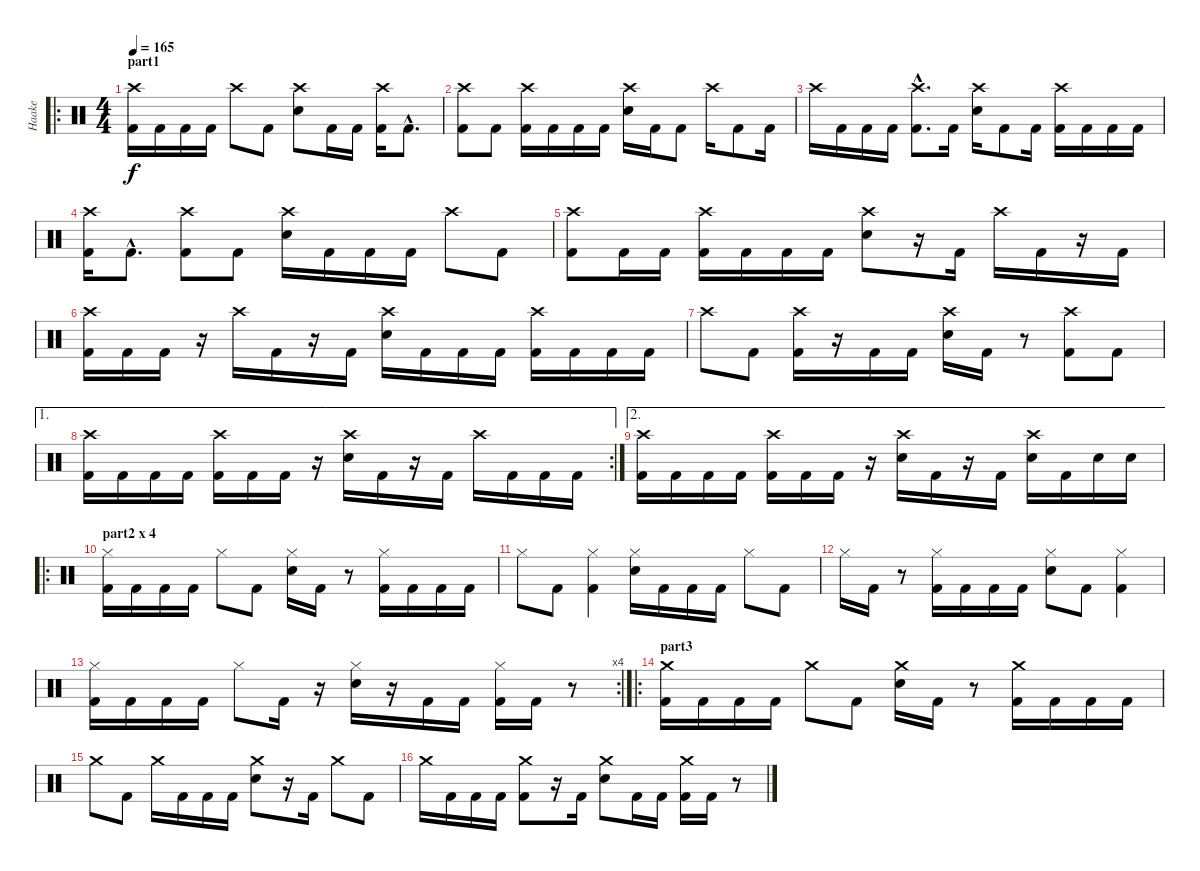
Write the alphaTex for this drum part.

\track ("Haake" "Haake") {instrument percussion}
\staff {score}
\articulation defaults
\ro
\ts (4 4)
\section ("" "part1")
\tempo 165
\clef neutral
\ks c
("Crash high (hit)" "Kick (hit) 2").16{dy f} "Kick (hit) 2".16 "Kick (hit) 2".16 "Kick (hit) 2".16 "Crash high (hit)".8 "Kick (hit) 2".8 ("Crash high (hit)" "Electric Snare (hit)").8 "Kick (hit) 2".16 "Kick (hit) 2".16 ("Crash high (hit)" "Kick (hit) 2").16 "Kick (hit) 2"{hac}.8{d} |
("Crash high (hit)" "Kick (hit) 2").8 "Kick (hit) 2".8 ("Crash high (hit)" "Kick (hit) 2").16 "Kick (hit) 2".16 "Kick (hit) 2".16 "Kick (hit) 2".16 ("Crash high (hit)" "Electric Snare (hit)").16 "Kick (hit) 2".16 "Kick (hit) 2".8 "Crash high (hit)".16 "Kick (hit) 2".8 "Kick (hit) 2".16 |
"Crash high (hit)".16 "Kick (hit) 2".16 "Kick (hit) 2".16 "Kick (hit) 2".16 ("Crash high (hit)"{hac} "Kick (hit) 2"{hac}).8{d} "Kick (hit) 2".16 ("Crash high (hit)" "Electric Snare (hit)").16 "Kick (hit) 2".8 "Kick (hit) 2".16 ("Crash high (hit)" "Kick (hit) 2").16 "Kick (hit) 2".16 "Kick (hit) 2".16 "Kick (hit) 2".16 |
("Crash high (hit)" "Kick (hit) 2").16 "Kick (hit) 2"{hac}.8{d} ("Crash high (hit)" "Kick (hit) 2").8 "Kick (hit) 2".8 ("Crash high (hit)" "Electric Snare (hit)").16 "Kick (hit) 2".16 "Kick (hit) 2".16 "Kick (hit) 2".16 "Crash high (hit)".8 "Kick (hit) 2".8 |
("Crash high (hit)" "Kick (hit) 2").8 "Kick (hit) 2".16 "Kick (hit) 2".16 ("Crash high (hit)" "Kick (hit) 2").16 "Kick (hit) 2".16 "Kick (hit) 2".16 "Kick (hit) 2".16 ("Crash high (hit)" "Electric Snare (hit)").8 r.16 "Kick (hit) 2".16 "Crash high (hit)".16 "Kick (hit) 2".16 r.16 "Kick (hit) 2".16 |
("Crash high (hit)" "Kick (hit) 2").16 "Kick (hit) 2".16 "Kick (hit) 2".16 r.16 "Crash high (hit)".16 "Kick (hit) 2".16 r.16 "Kick (hit) 2".16 ("Crash high (hit)" "Electric Snare (hit)").16 "Kick (hit) 2".16 "Kick (hit) 2".16 "Kick (hit) 2".16 ("Crash high (hit)" "Kick (hit) 2").16 "Kick (hit) 2".16 "Kick (hit) 2".16 "Kick (hit) 2".16 |
"Crash high (hit)".8 "Kick (hit) 2".8 ("Crash high (hit)" "Kick (hit) 2").16 r.16 "Kick (hit) 2".16 "Kick (hit) 2".16 ("Crash high (hit)" "Electric Snare (hit)").16 "Kick (hit) 2".16 r.8 ("Crash high (hit)" "Kick (hit) 2").8 "Kick (hit) 2".8 |
\ae 1
\rc 2
("Crash high (hit)" "Kick (hit) 2").16 "Kick (hit) 2".16 "Kick (hit) 2".16 "Kick (hit) 2".16 ("Crash high (hit)" "Kick (hit) 2").16 "Kick (hit) 2".16 "Kick (hit) 2".16 r.16 ("Crash high (hit)" "Electric Snare (hit)").16 "Kick (hit) 2".16 r.16 "Kick (hit) 2".16 "Crash high (hit)".16 "Kick (hit) 2".16 "Kick (hit) 2".16 "Kick (hit) 2".16 |
\ae 2
("Crash high (hit)" "Kick (hit) 2").16 "Kick (hit) 2".16 "Kick (hit) 2".16 "Kick (hit) 2".16 ("Crash high (hit)" "Kick (hit) 2").16 "Kick (hit) 2".16 "Kick (hit) 2".16 r.16 ("Crash high (hit)" "Electric Snare (hit)").16 "Kick (hit) 2".16 r.16 "Kick (hit) 2".16 ("Crash high (hit)" "Electric Snare (hit)").16 "Kick (hit) 2".16 "Electric Snare (hit)".16 "Electric Snare (hit)".16 |
\ro
\section ("" "part2 x 4")
("Hi-Hat (closed)" "Kick (hit) 2").16 "Kick (hit) 2".16 "Kick (hit) 2".16 "Kick (hit) 2".16 "Hi-Hat (closed)".8 "Kick (hit) 2".8 ("Hi-Hat (closed)" "Electric Snare (hit)").16 "Kick (hit) 2".16 r.8 ("Hi-Hat (closed)" "Kick (hit) 2").16 "Kick (hit) 2".16 "Kick (hit) 2".16 "Kick (hit) 2".16 |
"Hi-Hat (closed)".8 "Kick (hit) 2".8 ("Hi-Hat (closed)" "Kick (hit) 2").4 ("Hi-Hat (closed)" "Electric Snare (hit)").16 "Kick (hit) 2".16 "Kick (hit) 2".16 "Kick (hit) 2".16 "Hi-Hat (closed)".8 "Kick (hit) 2".8 |
"Hi-Hat (closed)".16 "Kick (hit) 2".16 r.8 ("Hi-Hat (closed)" "Kick (hit) 2").16 "Kick (hit) 2".16 "Kick (hit) 2".16 "Kick (hit) 2".16 ("Hi-Hat (closed)" "Electric Snare (hit)").8 "Kick (hit) 2".8 ("Hi-Hat (closed)" "Kick (hit) 2").4 |
\rc 4
("Hi-Hat (closed)" "Kick (hit) 2").16 "Kick (hit) 2".16 "Kick (hit) 2".16 "Kick (hit) 2".16 "Hi-Hat (closed)".8 "Kick (hit) 2".16 r.16 ("Hi-Hat (closed)" "Electric Snare (hit)").16 r.16 "Kick (hit) 2".16 "Kick (hit) 2".16 ("Hi-Hat (closed)" "Kick (hit) 2").16 "Kick (hit) 2".16 r.8 |
\ro
\section ("" "part3")
("Crash medium (hit)" "Kick (hit) 2").16 "Kick (hit) 2".16 "Kick (hit) 2".16 "Kick (hit) 2".16 "Crash medium (hit)".8 "Kick (hit) 2".8 ("Crash medium (hit)" "Electric Snare (hit)").16 "Kick (hit) 2".16 r.8 ("Crash medium (hit)" "Kick (hit) 2").16 "Kick (hit) 2".16 "Kick (hit) 2".16 "Kick (hit) 2".16 |
"Crash medium (hit)".8 "Kick (hit) 2".8 "Crash medium (hit)".16 "Kick (hit) 2".16 "Kick (hit) 2".16 "Kick (hit) 2".16 ("Crash medium (hit)" "Electric Snare (hit)").8 r.16 "Kick (hit) 2".16 "Crash medium (hit)".8 "Kick (hit) 2".8 |
"Crash medium (hit)".16 "Kick (hit) 2".16 "Kick (hit) 2".16 "Kick (hit) 2".16 ("Crash medium (hit)" "Kick (hit) 2").8 r.16 "Kick (hit) 2".16 ("Crash medium (hit)" "Electric Snare (hit)").8 "Kick (hit) 2".16 "Kick (hit) 2".16 ("Crash medium (hit)" "Kick (hit) 2").16 "Kick (hit) 2".16 r.8
